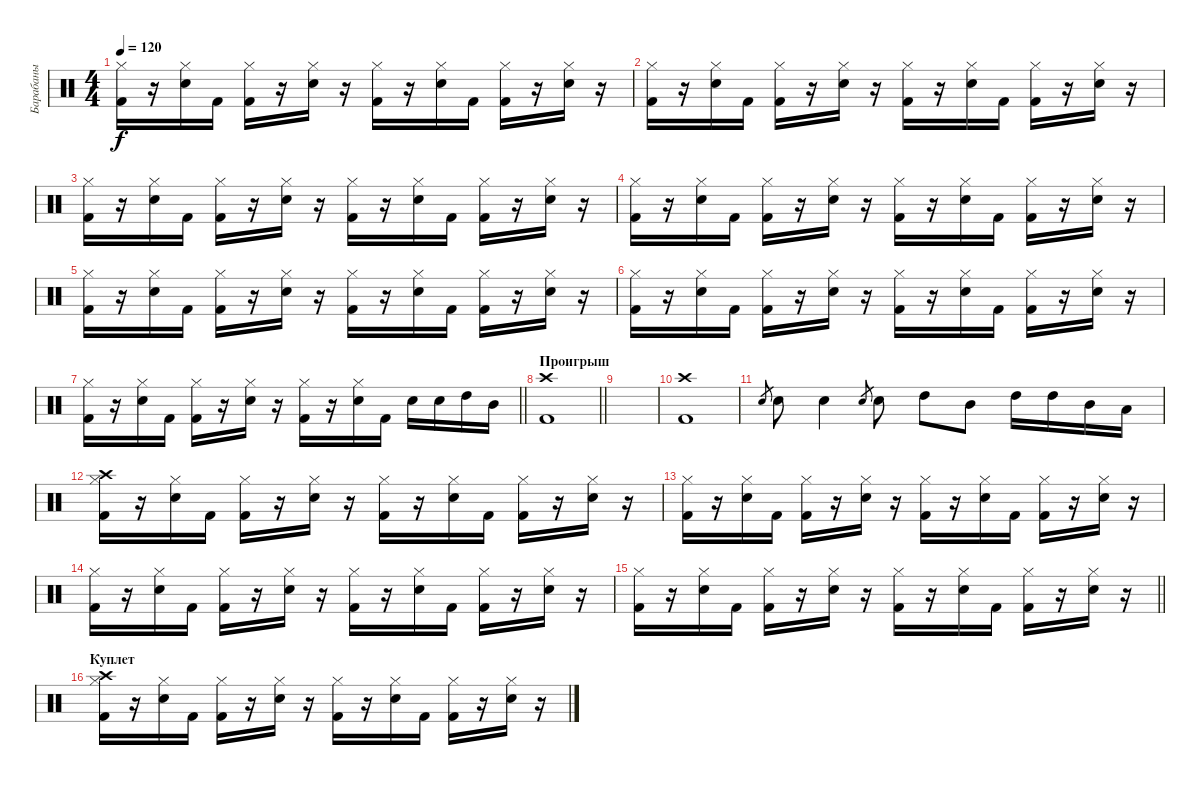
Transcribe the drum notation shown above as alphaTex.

\track ("Барабаны" "Барабаны") {instrument percussion}
\staff {score}
\articulation defaults
\ts (4 4)
\tempo 120
\clef neutral
\ks c
("Hi-Hat (closed)" "Kick (hit) 2").16{dy f} r.16 ("Hi-Hat (closed)" "Electric Snare (hit)").16 "Kick (hit) 2".16 ("Hi-Hat (closed)" "Kick (hit) 2").16 r.16 ("Hi-Hat (closed)" "Electric Snare (hit)").16 r.16 ("Hi-Hat (closed)" "Kick (hit) 2").16 r.16 ("Hi-Hat (closed)" "Electric Snare (hit)").16 "Kick (hit) 2".16 ("Hi-Hat (closed)" "Kick (hit) 2").16 r.16 ("Hi-Hat (closed)" "Electric Snare (hit)").16 r.16 |
("Hi-Hat (closed)" "Kick (hit) 2").16 r.16 ("Hi-Hat (closed)" "Electric Snare (hit)").16 "Kick (hit) 2".16 ("Hi-Hat (closed)" "Kick (hit) 2").16 r.16 ("Hi-Hat (closed)" "Electric Snare (hit)").16 r.16 ("Hi-Hat (closed)" "Kick (hit) 2").16 r.16 ("Hi-Hat (closed)" "Electric Snare (hit)").16 "Kick (hit) 2".16 ("Hi-Hat (closed)" "Kick (hit) 2").16 r.16 ("Hi-Hat (closed)" "Electric Snare (hit)").16 r.16 |
("Hi-Hat (closed)" "Kick (hit) 2").16 r.16 ("Hi-Hat (closed)" "Electric Snare (hit)").16 "Kick (hit) 2".16 ("Hi-Hat (closed)" "Kick (hit) 2").16 r.16 ("Hi-Hat (closed)" "Electric Snare (hit)").16 r.16 ("Hi-Hat (closed)" "Kick (hit) 2").16 r.16 ("Hi-Hat (closed)" "Electric Snare (hit)").16 "Kick (hit) 2".16 ("Hi-Hat (closed)" "Kick (hit) 2").16 r.16 ("Hi-Hat (closed)" "Electric Snare (hit)").16 r.16 |
("Hi-Hat (closed)" "Kick (hit) 2").16 r.16 ("Hi-Hat (closed)" "Electric Snare (hit)").16 "Kick (hit) 2".16 ("Hi-Hat (closed)" "Kick (hit) 2").16 r.16 ("Hi-Hat (closed)" "Electric Snare (hit)").16 r.16 ("Hi-Hat (closed)" "Kick (hit) 2").16 r.16 ("Hi-Hat (closed)" "Electric Snare (hit)").16 "Kick (hit) 2".16 ("Hi-Hat (closed)" "Kick (hit) 2").16 r.16 ("Hi-Hat (closed)" "Electric Snare (hit)").16 r.16 |
("Hi-Hat (closed)" "Kick (hit) 2").16 r.16 ("Hi-Hat (closed)" "Electric Snare (hit)").16 "Kick (hit) 2".16 ("Hi-Hat (closed)" "Kick (hit) 2").16 r.16 ("Hi-Hat (closed)" "Electric Snare (hit)").16 r.16 ("Hi-Hat (closed)" "Kick (hit) 2").16 r.16 ("Hi-Hat (closed)" "Electric Snare (hit)").16 "Kick (hit) 2".16 ("Hi-Hat (closed)" "Kick (hit) 2").16 r.16 ("Hi-Hat (closed)" "Electric Snare (hit)").16 r.16 |
("Hi-Hat (closed)" "Kick (hit) 2").16 r.16 ("Hi-Hat (closed)" "Electric Snare (hit)").16 "Kick (hit) 2".16 ("Hi-Hat (closed)" "Kick (hit) 2").16 r.16 ("Hi-Hat (closed)" "Electric Snare (hit)").16 r.16 ("Hi-Hat (closed)" "Kick (hit) 2").16 r.16 ("Hi-Hat (closed)" "Electric Snare (hit)").16 "Kick (hit) 2".16 ("Hi-Hat (closed)" "Kick (hit) 2").16 r.16 ("Hi-Hat (closed)" "Electric Snare (hit)").16 r.16 |
\barLineRight lightlight
("Hi-Hat (closed)" "Kick (hit) 2").16 r.16 ("Hi-Hat (closed)" "Electric Snare (hit)").16 "Kick (hit) 2".16 ("Hi-Hat (closed)" "Kick (hit) 2").16 r.16 ("Hi-Hat (closed)" "Electric Snare (hit)").16 r.16 ("Hi-Hat (closed)" "Kick (hit) 2").16 r.16 ("Hi-Hat (closed)" "Electric Snare (hit)").16 "Kick (hit) 2".16 "Electric Snare (hit)".16 "Electric Snare (hit)".16 "High Tom (hit)".16 "Mid Tom (hit)".16 |
\section ("" "Проигрыш")
\barLineRight lightlight
("Crash high (hit)" "Kick (hit) 2").1 |
|
("Crash high (hit)" "Kick (hit) 2").1 |
"Electric Snare (hit)".8{gr} "Electric Snare (hit)".8 "Electric Snare (hit)".4 "Electric Snare (hit)".8{gr} "Electric Snare (hit)".8 "High Tom (hit)".8 "Mid Tom (hit)".8 "High Tom (hit)".16 "High Tom (hit)".16 "Mid Tom (hit)".16 "Low Tom (hit)".16 |
("Hi-Hat (closed)" "Kick (hit) 2" "Crash high (hit)").16 r.16 ("Hi-Hat (closed)" "Electric Snare (hit)").16 "Kick (hit) 2".16 ("Hi-Hat (closed)" "Kick (hit) 2").16 r.16 ("Hi-Hat (closed)" "Electric Snare (hit)").16 r.16 ("Hi-Hat (closed)" "Kick (hit) 2").16 r.16 ("Hi-Hat (closed)" "Electric Snare (hit)").16 "Kick (hit) 2".16 ("Hi-Hat (closed)" "Kick (hit) 2").16 r.16 ("Hi-Hat (closed)" "Electric Snare (hit)").16 r.16 |
("Hi-Hat (closed)" "Kick (hit) 2").16 r.16 ("Hi-Hat (closed)" "Electric Snare (hit)").16 "Kick (hit) 2".16 ("Hi-Hat (closed)" "Kick (hit) 2").16 r.16 ("Hi-Hat (closed)" "Electric Snare (hit)").16 r.16 ("Hi-Hat (closed)" "Kick (hit) 2").16 r.16 ("Hi-Hat (closed)" "Electric Snare (hit)").16 "Kick (hit) 2".16 ("Hi-Hat (closed)" "Kick (hit) 2").16 r.16 ("Hi-Hat (closed)" "Electric Snare (hit)").16 r.16 |
("Hi-Hat (closed)" "Kick (hit) 2").16 r.16 ("Hi-Hat (closed)" "Electric Snare (hit)").16 "Kick (hit) 2".16 ("Hi-Hat (closed)" "Kick (hit) 2").16 r.16 ("Hi-Hat (closed)" "Electric Snare (hit)").16 r.16 ("Hi-Hat (closed)" "Kick (hit) 2").16 r.16 ("Hi-Hat (closed)" "Electric Snare (hit)").16 "Kick (hit) 2".16 ("Hi-Hat (closed)" "Kick (hit) 2").16 r.16 ("Hi-Hat (closed)" "Electric Snare (hit)").16 r.16 |
\barLineRight lightlight
("Hi-Hat (closed)" "Kick (hit) 2").16 r.16 ("Hi-Hat (closed)" "Electric Snare (hit)").16 "Kick (hit) 2".16 ("Hi-Hat (closed)" "Kick (hit) 2").16 r.16 ("Hi-Hat (closed)" "Electric Snare (hit)").16 r.16 ("Hi-Hat (closed)" "Kick (hit) 2").16 r.16 ("Hi-Hat (closed)" "Electric Snare (hit)").16 "Kick (hit) 2".16 ("Hi-Hat (closed)" "Kick (hit) 2").16 r.16 ("Hi-Hat (closed)" "Electric Snare (hit)").16 r.16 |
\section ("" "Куплет")
("Hi-Hat (closed)" "Kick (hit) 2" "Crash high (hit)").16 r.16 ("Hi-Hat (closed)" "Electric Snare (hit)").16 "Kick (hit) 2".16 ("Hi-Hat (closed)" "Kick (hit) 2").16 r.16 ("Hi-Hat (closed)" "Electric Snare (hit)").16 r.16 ("Hi-Hat (closed)" "Kick (hit) 2").16 r.16 ("Hi-Hat (closed)" "Electric Snare (hit)").16 "Kick (hit) 2".16 ("Hi-Hat (closed)" "Kick (hit) 2").16 r.16 ("Hi-Hat (closed)" "Electric Snare (hit)").16 r.16
